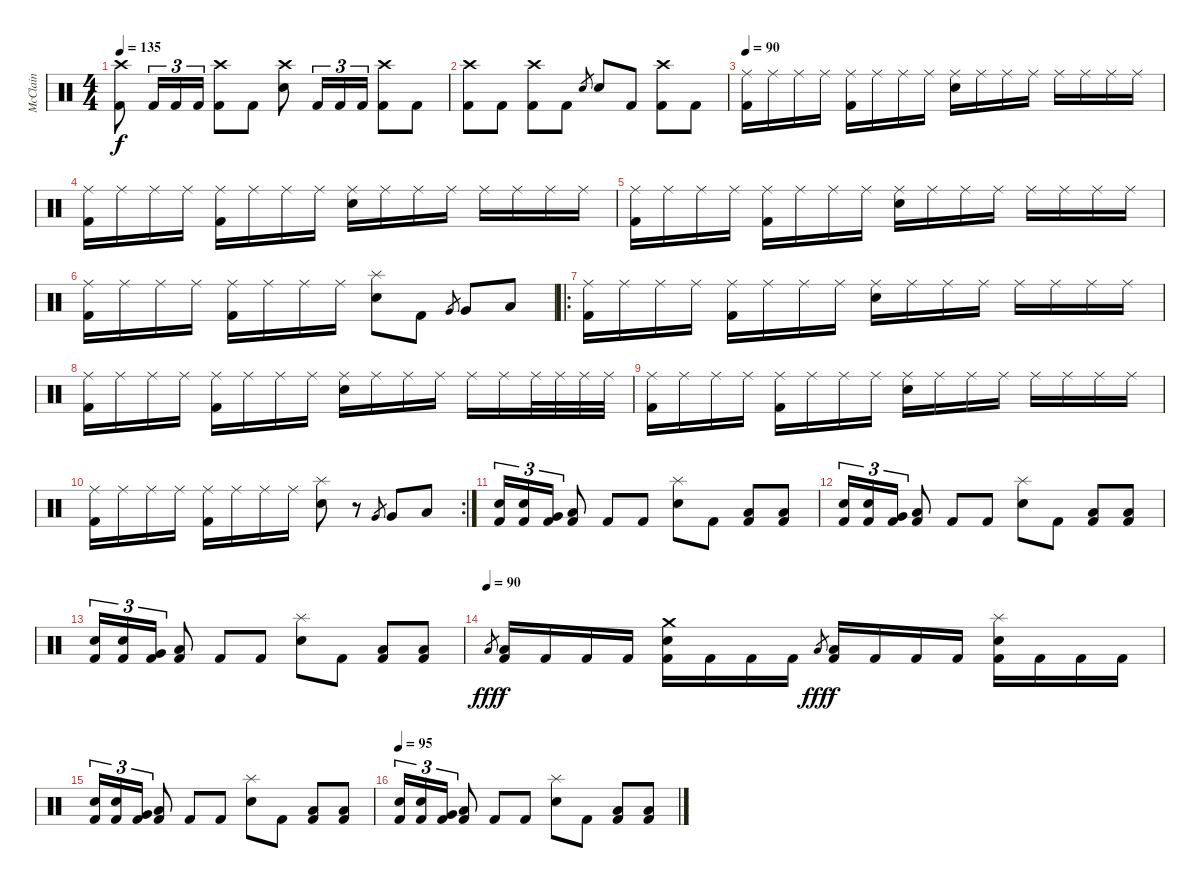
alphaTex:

\track ("McClain" "McClain") {instrument percussion}
\staff {score}
\articulation defaults
\ts (4 4)
\tempo 135
\clef neutral
\ks c
("Crash high (hit)" "Kick (hit) 2").8{dy f} "Kick (hit) 2".16{tu (3 2)} "Kick (hit) 2".16{tu (3 2)} "Kick (hit) 2".16{tu (3 2)} ("Crash high (hit)" "Kick (hit) 2").8 "Kick (hit) 2".8 ("Crash high (hit)" "Electric Snare (hit)").8 "Kick (hit) 2".16{tu (3 2)} "Kick (hit) 2".16{tu (3 2)} "Kick (hit) 2".16{tu (3 2)} ("Crash high (hit)" "Kick (hit) 2").8 "Kick (hit) 2".8 |
("Crash high (hit)" "Kick (hit) 2").8 "Kick (hit) 2".8 ("Crash high (hit)" "Kick (hit) 2").8 "Kick (hit) 2".8 "Electric Snare (hit)".8{gr} "Electric Snare (hit)".8 "Kick (hit) 2".8 ("Crash high (hit)" "Kick (hit) 2").8 "Kick (hit) 2".8 |
\tempo 90
("Ride (middle)" "Kick (hit) 2").16 "Ride (middle)".16 "Ride (middle)".16 "Ride (middle)".16 ("Ride (middle)" "Kick (hit) 2").16 "Ride (middle)".16 "Ride (middle)".16 "Ride (middle)".16 ("Ride (middle)" "Electric Snare (hit)").16 "Ride (middle)".16 "Ride (middle)".16 "Ride (middle)".16 "Ride (middle)".16 "Ride (middle)".16 "Ride (middle)".16 "Ride (middle)".16 |
("Ride (middle)" "Kick (hit) 2").16 "Ride (middle)".16 "Ride (middle)".16 "Ride (middle)".16 ("Ride (middle)" "Kick (hit) 2").16 "Ride (middle)".16 "Ride (middle)".16 "Ride (middle)".16 ("Ride (middle)" "Electric Snare (hit)").16 "Ride (middle)".16 "Ride (middle)".16 "Ride (middle)".16 "Ride (middle)".16 "Ride (middle)".16 "Ride (middle)".16 "Ride (middle)".16 |
("Ride (middle)" "Kick (hit) 2").16 "Ride (middle)".16 "Ride (middle)".16 "Ride (middle)".16 ("Ride (middle)" "Kick (hit) 2").16 "Ride (middle)".16 "Ride (middle)".16 "Ride (middle)".16 ("Ride (middle)" "Electric Snare (hit)").16 "Ride (middle)".16 "Ride (middle)".16 "Ride (middle)".16 "Ride (middle)".16 "Ride (middle)".16 "Ride (middle)".16 "Ride (middle)".16 |
("Ride (middle)" "Kick (hit) 2").16 "Ride (middle)".16 "Ride (middle)".16 "Ride (middle)".16 ("Ride (middle)" "Kick (hit) 2").16 "Ride (middle)".16 "Ride (middle)".16 "Ride (middle)".16 ("Splash (hit)" "Electric Snare (hit)").8 "Kick (hit) 2".8 "Very Low Tom (hit)".8{gr} "Very Low Tom (hit)".8 "Low Floor Tom (hit)".8 |
\ro
("Ride (middle)" "Kick (hit) 2").16 "Ride (middle)".16 "Ride (middle)".16 "Ride (middle)".16 ("Ride (middle)" "Kick (hit) 2").16 "Ride (middle)".16 "Ride (middle)".16 "Ride (middle)".16 ("Ride (middle)" "Electric Snare (hit)").16 "Ride (middle)".16 "Ride (middle)".16 "Ride (middle)".16 "Ride (middle)".16 "Ride (middle)".16 "Ride (middle)".16 "Ride (middle)".16 |
("Ride (middle)" "Kick (hit) 2").16 "Ride (middle)".16 "Ride (middle)".16 "Ride (middle)".16 ("Ride (middle)" "Kick (hit) 2").16 "Ride (middle)".16 "Ride (middle)".16 "Ride (middle)".16 ("Ride (middle)" "Electric Snare (hit)").16 "Ride (middle)".16 "Ride (middle)".16 "Ride (middle)".16 "Ride (middle)".16 "Ride (middle)".16 "Ride (middle)".32 "Ride (middle)".32 "Ride (middle)".32 "Ride (middle)".32 |
("Ride (middle)" "Kick (hit) 2").16 "Ride (middle)".16 "Ride (middle)".16 "Ride (middle)".16 ("Ride (middle)" "Kick (hit) 2").16 "Ride (middle)".16 "Ride (middle)".16 "Ride (middle)".16 ("Ride (middle)" "Electric Snare (hit)").16 "Ride (middle)".16 "Ride (middle)".16 "Ride (middle)".16 "Ride (middle)".16 "Ride (middle)".16 "Ride (middle)".16 "Ride (middle)".16 |
\rc 2
("Ride (middle)" "Kick (hit) 2").16 "Ride (middle)".16 "Ride (middle)".16 "Ride (middle)".16 ("Ride (middle)" "Kick (hit) 2").16 "Ride (middle)".16 "Ride (middle)".16 "Ride (middle)".16 ("Splash (hit)" "Electric Snare (hit)").8 r.8 "Very Low Tom (hit)".8{gr} "Very Low Tom (hit)".8 "Low Floor Tom (hit)".8 |
("Electric Snare (hit)" "Kick (hit) 2").16{tu (3 2)} ("Electric Snare (hit)" "Kick (hit) 2").16{tu (3 2)} ("Very Low Tom (hit)" "Kick (hit) 2").16{tu (3 2)} ("Low Floor Tom (hit)" "Kick (hit) 2").8 "Kick (hit) 2".8 "Kick (hit) 2".8 ("Splash (hit)" "Electric Snare (hit)").8 "Kick (hit) 2".8 ("Low Floor Tom (hit)" "Kick (hit) 2").8 ("Low Floor Tom (hit)" "Kick (hit) 2").8 |
("Electric Snare (hit)" "Kick (hit) 2").16{tu (3 2)} ("Electric Snare (hit)" "Kick (hit) 2").16{tu (3 2)} ("Very Low Tom (hit)" "Kick (hit) 2").16{tu (3 2)} ("Low Floor Tom (hit)" "Kick (hit) 2").8 "Kick (hit) 2".8 "Kick (hit) 2".8 ("Splash (hit)" "Electric Snare (hit)").8 "Kick (hit) 2".8 ("Low Floor Tom (hit)" "Kick (hit) 2").8 ("Low Floor Tom (hit)" "Kick (hit) 2").8 |
("Electric Snare (hit)" "Kick (hit) 2").16{tu (3 2)} ("Electric Snare (hit)" "Kick (hit) 2").16{tu (3 2)} ("Very Low Tom (hit)" "Kick (hit) 2").16{tu (3 2)} ("Low Floor Tom (hit)" "Kick (hit) 2").8 "Kick (hit) 2".8 "Kick (hit) 2".8 ("Splash (hit)" "Electric Snare (hit)").8 "Kick (hit) 2".8 ("Low Floor Tom (hit)" "Kick (hit) 2").8 ("Low Floor Tom (hit)" "Kick (hit) 2").8 |
\tempo (90)
"Low Floor Tom (hit)".8{gr dy fff} ("Low Floor Tom (hit)" "Kick (hit) 2").16{dy f} "Kick (hit) 2".16 "Kick (hit) 2".16 "Kick (hit) 2".16 ("Crash medium (hit)" "Electric Snare (hit)" "Kick (hit) 2").16 "Kick (hit) 2".16 "Kick (hit) 2".16 "Kick (hit) 2".16 "Low Floor Tom (hit)".8{gr dy fff} ("Low Floor Tom (hit)" "Kick (hit) 2").16{dy f} "Kick (hit) 2".16 "Kick (hit) 2".16 "Kick (hit) 2".16 ("Splash (hit)" "Electric Snare (hit)" "Kick (hit) 2").16 "Kick (hit) 2".16 "Kick (hit) 2".16 "Kick (hit) 2".16 |
("Electric Snare (hit)" "Kick (hit) 2").16{tu (3 2)} ("Electric Snare (hit)" "Kick (hit) 2").16{tu (3 2)} ("Very Low Tom (hit)" "Kick (hit) 2").16{tu (3 2)} ("Low Floor Tom (hit)" "Kick (hit) 2").8 "Kick (hit) 2".8 "Kick (hit) 2".8 ("Splash (hit)" "Electric Snare (hit)").8 "Kick (hit) 2".8 ("Low Floor Tom (hit)" "Kick (hit) 2").8 ("Low Floor Tom (hit)" "Kick (hit) 2").8 |
\tempo 95
("Electric Snare (hit)" "Kick (hit) 2").16{tu (3 2)} ("Electric Snare (hit)" "Kick (hit) 2").16{tu (3 2)} ("Very Low Tom (hit)" "Kick (hit) 2").16{tu (3 2)} ("Low Floor Tom (hit)" "Kick (hit) 2").8 "Kick (hit) 2".8 "Kick (hit) 2".8 ("Splash (hit)" "Electric Snare (hit)").8 "Kick (hit) 2".8 ("Low Floor Tom (hit)" "Kick (hit) 2").8 ("Low Floor Tom (hit)" "Kick (hit) 2").8
